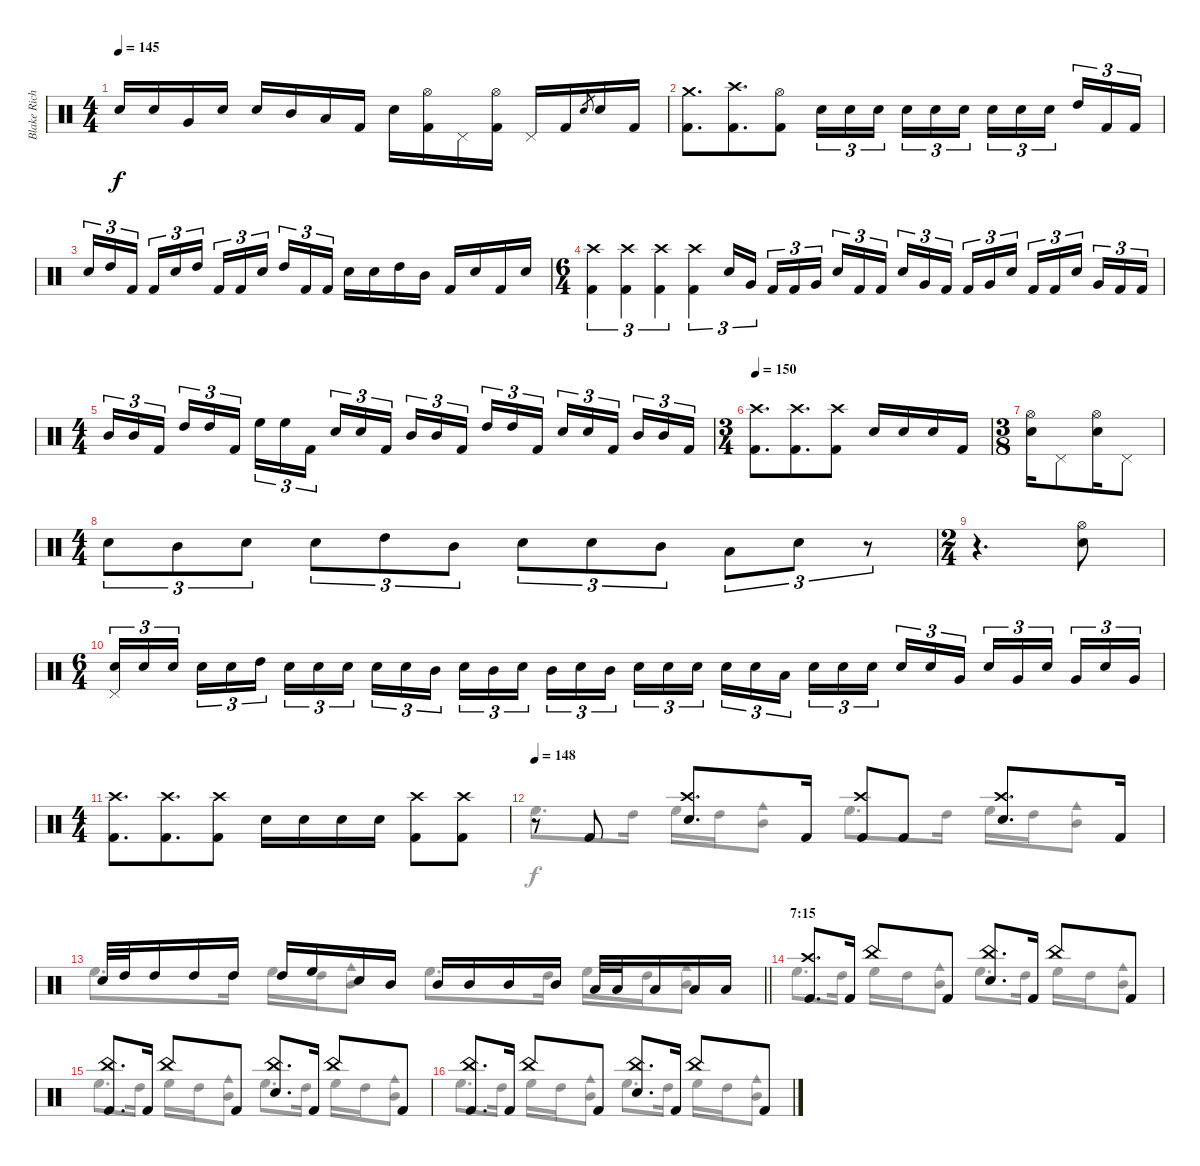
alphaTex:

\track ("Blake Richardson" "Blake Rich") {instrument percussion}
\staff {score}
\articulation defaults
\voice
\ts (4 4)
\tempo 145
\clef neutral
\ks c "Electric Snare (hit)".16{dy f} "Electric Snare (hit)".16 "Very Low Tom (hit)".16 "Electric Snare (hit)".16 "Electric Snare (hit)".16 "Mid Tom (hit)".16 "Low Tom (hit)".16 "Kick (hit) 2".16 "Electric Snare (hit)".16
("Hi-Hat (open)" "Kick (hit) 2").16 "Pedal Hi-Hat (hit)".16 ("Hi-Hat (open)" "Kick (hit) 2").16 "Pedal Hi-Hat (hit)".16 "Kick (hit) 2".16 "Electric Snare (hit)".8{gr} "Electric Snare (hit)".16 "Kick (hit) 2".16 |
("Crash medium (hit)" "Kick (hit) 2").8{d} ("Crash high (hit)" "Kick (hit) 2").8{d beam merge} ("Hi-Hat (open)" "Kick (hit) 2").8 "Electric Snare (hit)".16{tu (3 2)} "Electric Snare (hit)".16{tu (3 2)} "Electric Snare (hit)".16{tu (3 2) beam splitsecondary} "Electric Snare (hit)".16{tu (3 2)} "Electric Snare (hit)".16{tu (3 2)} "Electric Snare (hit)".16{tu (3 2)} "Electric Snare (hit)".16{tu (3 2)} "Electric Snare (hit)".16{tu (3 2)} "Electric Snare (hit)".16{tu (3 2) beam splitsecondary} "High Tom (hit)".16{tu (3 2)} "Kick (hit) 2".16{tu (3 2)} "Kick (hit) 2".16{tu (3 2)} |
"Electric Snare (hit)".16{tu (3 2)} "High Tom (hit)".16{tu (3 2)} "Kick (hit) 2".16{tu (3 2) beam splitsecondary} "Kick (hit) 2".16{tu (3 2)} "Electric Snare (hit)".16{tu (3 2)} "High Tom (hit)".16{tu (3 2)} "Kick (hit) 2".16{tu (3 2)} "Kick (hit) 2".16{tu (3 2)} "Electric Snare (hit)".16{tu (3 2) beam splitsecondary} "High Tom (hit)".16{tu (3 2)} "Kick (hit) 2".16{tu (3 2)} "Kick (hit) 2".16{tu (3 2)} "Electric Snare (hit)".16 "Electric Snare (hit)".16 "High Tom (hit)".16 "Mid Tom (hit)".16 "Kick (hit) 2".16 "Electric Snare (hit)".16 "Kick (hit) 2".16 "Electric Snare (hit)".16 |
\ts (6 4)
("Crash high (hit)" "Kick (hit) 2").4{tu (3 2)} ("Crash high (hit)" "Kick (hit) 2").4{tu (3 2)} ("Crash high (hit)" "Kick (hit) 2").4{tu (3 2)} ("Crash high (hit)" "Kick (hit) 2").4{tu (3 2)} "Electric Snare (hit)".16{tu (3 2)} "Very Low Tom (hit)".16{tu (3 2)} "Kick (hit) 2".16{tu (3 2)} "Kick (hit) 2".16{tu (3 2)} "Very Low Tom (hit)".16{tu (3 2) beam splitsecondary} "Electric Snare (hit)".16{tu (3 2)} "Kick (hit) 2".16{tu (3 2)} "Kick (hit) 2".16{tu (3 2) beam split} "Electric Snare (hit)".16{tu (3 2)} "Very Low Tom (hit)".16{tu (3 2)} "Kick (hit) 2".16{tu (3 2) beam splitsecondary} "Kick (hit) 2".16{tu (3 2)} "Very Low Tom (hit)".16{tu (3 2)} "Electric Snare (hit)".16{tu (3 2) beam split} "Kick (hit) 2".16{tu (3 2)} "Kick (hit) 2".16{tu (3 2)} "Electric Snare (hit)".16{tu (3 2) beam splitsecondary} "Very Low Tom (hit)".16{tu (3 2)} "Kick (hit) 2".16{tu (3 2)} "Kick (hit) 2".16{tu (3 2)} |
\ts (4 4)
"Mid Tom (hit)".16{tu (3 2)} "Mid Tom (hit)".16{tu (3 2)} "Kick (hit) 2".16{tu (3 2) beam splitsecondary} "High Tom (hit)".16{tu (3 2)} "High Tom (hit)".16{tu (3 2)} "Kick (hit) 2".16{tu (3 2)} "High Floor Tom (hit)".16{tu (3 2)} "High Floor Tom (hit)".16{tu (3 2)} "Kick (hit) 2".16{tu (3 2) beam splitsecondary} "Electric Snare (hit)".16{tu (3 2)} "Electric Snare (hit)".16{tu (3 2)} "Kick (hit) 2".16{tu (3 2)} "Mid Tom (hit)".16{tu (3 2)} "Mid Tom (hit)".16{tu (3 2)} "Kick (hit) 2".16{tu (3 2) beam splitsecondary} "High Tom (hit)".16{tu (3 2)} "High Tom (hit)".16{tu (3 2)} "Kick (hit) 2".16{tu (3 2)} "Electric Snare (hit)".16{tu (3 2)} "Electric Snare (hit)".16{tu (3 2)} "Kick (hit) 2".16{tu (3 2) beam splitsecondary} "Mid Tom (hit)".16{tu (3 2)} "Mid Tom (hit)".16{tu (3 2)} "Kick (hit) 2".16{tu (3 2)} |
\ts (3 4)
\tempo 150
("Crash high (hit)" "Kick (hit) 2").8{d} ("Crash high (hit)" "Kick (hit) 2").8{d beam merge} ("Crash high (hit)" "Kick (hit) 2").8 "Electric Snare (hit)".16 "Electric Snare (hit)".16 "Electric Snare (hit)".16 "Kick (hit) 2".16 |
\ts (3 8)
("Hi-Hat (open)" "Electric Snare (hit)").16 "Pedal Hi-Hat (hit)".8 ("Hi-Hat (open)" "Electric Snare (hit)").16{beam merge} "Pedal Hi-Hat (hit)".8 |
\ts (4 4)
"Electric Snare (hit)".8{tu (3 2)} "Mid Tom (hit)".8{tu (3 2)} "Electric Snare (hit)".8{tu (3 2)} "Electric Snare (hit)".8{tu (3 2)} "High Tom (hit)".8{tu (3 2)} "Mid Tom (hit)".8{tu (3 2)} "Electric Snare (hit)".8{tu (3 2)} "Electric Snare (hit)".8{tu (3 2)} "Mid Tom (hit)".8{tu (3 2)} "Low Tom (hit)".8{tu (3 2)} "Electric Snare (hit)".8{tu (3 2)} r.8{tu (3 2)} |
\ts (2 4)
r.4{d} ("Hi-Hat (open)" "Electric Snare (hit)").8 |
\ts (6 4)
("Electric Snare (hit)" "Pedal Hi-Hat (hit)").16{tu (3 2)} "Electric Snare (hit)".16{tu (3 2)} "Electric Snare (hit)".16{tu (3 2) beam splitsecondary} "Electric Snare (hit)".16{tu (3 2)} "Electric Snare (hit)".16{tu (3 2)} "High Tom (hit)".16{tu (3 2) beam split} "Electric Snare (hit)".16{tu (3 2)} "Electric Snare (hit)".16{tu (3 2)} "Electric Snare (hit)".16{tu (3 2) beam splitsecondary} "Electric Snare (hit)".16{tu (3 2)} "Electric Snare (hit)".16{tu (3 2)} "Mid Tom (hit)".16{tu (3 2) beam split} "Electric Snare (hit)".16{tu (3 2)} "Mid Tom (hit)".16{tu (3 2)} "Electric Snare (hit)".16{tu (3 2) beam splitsecondary} "Mid Tom (hit)".16{tu (3 2)} "Electric Snare (hit)".16{tu (3 2)} "Mid Tom (hit)".16{tu (3 2)} "Electric Snare (hit)".16{tu (3 2)} "Electric Snare (hit)".16{tu (3 2)} "Electric Snare (hit)".16{tu (3 2) beam splitsecondary} "Electric Snare (hit)".16{tu (3 2)} "Electric Snare (hit)".16{tu (3 2)} "Low Tom (hit)".16{tu (3 2) beam split} "Electric Snare (hit)".16{tu (3 2)} "Electric Snare (hit)".16{tu (3 2)} "Electric Snare (hit)".16{tu (3 2) beam splitsecondary} "Electric Snare (hit)".16{tu (3 2)} "Electric Snare (hit)".16{tu (3 2)} "Very Low Tom (hit)".16{tu (3 2) beam split} "Electric Snare (hit)".16{tu (3 2)} "Very Low Tom (hit)".16{tu (3 2)} "Electric Snare (hit)".16{tu (3 2) beam splitsecondary} "Very Low Tom (hit)".16{tu (3 2)} "Electric Snare (hit)".16{tu (3 2)} "Very Low Tom (hit)".16{tu (3 2)} |
\ts (4 4)
("Crash high (hit)" "Kick (hit) 2").8{d} ("Crash high (hit)" "Kick (hit) 2").8{d beam merge} ("Crash high (hit)" "Kick (hit) 2").8 "Electric Snare (hit)".16 "Electric Snare (hit)".16 "Electric Snare (hit)".16 "Electric Snare (hit)".16 ("Crash high (hit)" "Kick (hit) 2").8 ("Crash high (hit)" "Kick (hit) 2").8 |
\tempo 148
r.8 "Kick (hit) 2".8 ("Crash high (hit)" "Electric Snare (hit)").8{d} "Kick (hit) 2".16 ("Crash high (hit)" "Kick (hit) 2").8 "Kick (hit) 2".8 ("Crash high (hit)" "Electric Snare (hit)").8{d} "Kick (hit) 2".16 |
\barLineRight lightlight "Electric Snare (hit)".32 "High Tom (hit)".32 "High Tom (hit)".16 "High Tom (hit)".16 "High Tom (hit)".16 "High Tom (hit)".16 "High Floor Tom (hit)".16 "Electric Snare (hit)".16 "Mid Tom (hit)".16 "Mid Tom (hit)".16 "Mid Tom (hit)".16 "Mid Tom (hit)".16 "Mid Tom (hit)".16 "Low Tom (hit)".32 "Low Tom (hit)".32 "Low Tom (hit)".16 "Low Tom (hit)".16 "Low Tom (hit)".16
|
\section ("" "7:15")
("Crash high (hit)" "Kick (hit) 2").8{d} "Kick (hit) 2".16 "China (hit)".8 "Kick (hit) 2".8 ("China (hit)" "Electric Snare (hit)").8{d} "Kick (hit) 2".16 "China (hit)".8 "Kick (hit) 2".8 |
("China (hit)" "Kick (hit) 2").8{d} "Kick (hit) 2".16 "China (hit)".8 "Kick (hit) 2".8 ("China (hit)" "Electric Snare (hit)").8{d} "Kick (hit) 2".16 "China (hit)".8 "Kick (hit) 2".8 |
("China (hit)" "Kick (hit) 2").8{d} "Kick (hit) 2".16 "China (hit)".8 "Kick (hit) 2".8 ("China (hit)" "Electric Snare (hit)").8{d} "Kick (hit) 2".16 "China (hit)".8 "Kick (hit) 2".8
\voice
\clef neutral
\ottava regular
\simile none
\ks c
|
|
|
|
|
|
|
|
|
|
|
"High Floor Tom (hit)".8{d} "High Tom (hit)".16 "High Floor Tom (hit)".16 "High Tom (hit)".16 ("Cowbell medium (hit)" "Mid Tom (hit)").8 "High Floor Tom (hit)".8{d} "High Tom (hit)".16 "High Floor Tom (hit)".16 "High Tom (hit)".16 ("Cowbell medium (hit)" "Mid Tom (hit)").8 |
\barLineRight lightlight "High Floor Tom (hit)".8{d} "High Tom (hit)".16 "High Floor Tom (hit)".16 "High Tom (hit)".16
("Cowbell medium (hit)" "Mid Tom (hit)").8 "High Floor Tom (hit)".8{d} "High Tom (hit)".16 "High Floor Tom (hit)".16 "High Tom (hit)".16 ("Cowbell medium (hit)" "Mid Tom (hit)").8 |
"High Floor Tom (hit)".8{d} "High Tom (hit)".16 "High Floor Tom (hit)".16 "High Tom (hit)".16 ("Cowbell medium (hit)" "Mid Tom (hit)").8 "High Floor Tom (hit)".8{d} "High Tom (hit)".16 "High Floor Tom (hit)".16 "High Tom (hit)".16 ("Cowbell medium (hit)" "Mid Tom (hit)").8 |
"High Floor Tom (hit)".8{d} "High Tom (hit)".16 "High Floor Tom (hit)".16 "High Tom (hit)".16 ("Cowbell medium (hit)" "Mid Tom (hit)").8 "High Floor Tom (hit)".8{d} "High Tom (hit)".16 "High Floor Tom (hit)".16 "High Tom (hit)".16 ("Cowbell medium (hit)" "Mid Tom (hit)").8 |
"High Floor Tom (hit)".8{d} "High Tom (hit)".16 "High Floor Tom (hit)".16 "High Tom (hit)".16 ("Cowbell medium (hit)" "Mid Tom (hit)").8 "High Floor Tom (hit)".8{d} "High Tom (hit)".16 "High Floor Tom (hit)".16 "High Tom (hit)".16 ("Cowbell medium (hit)" "Mid Tom (hit)").8
